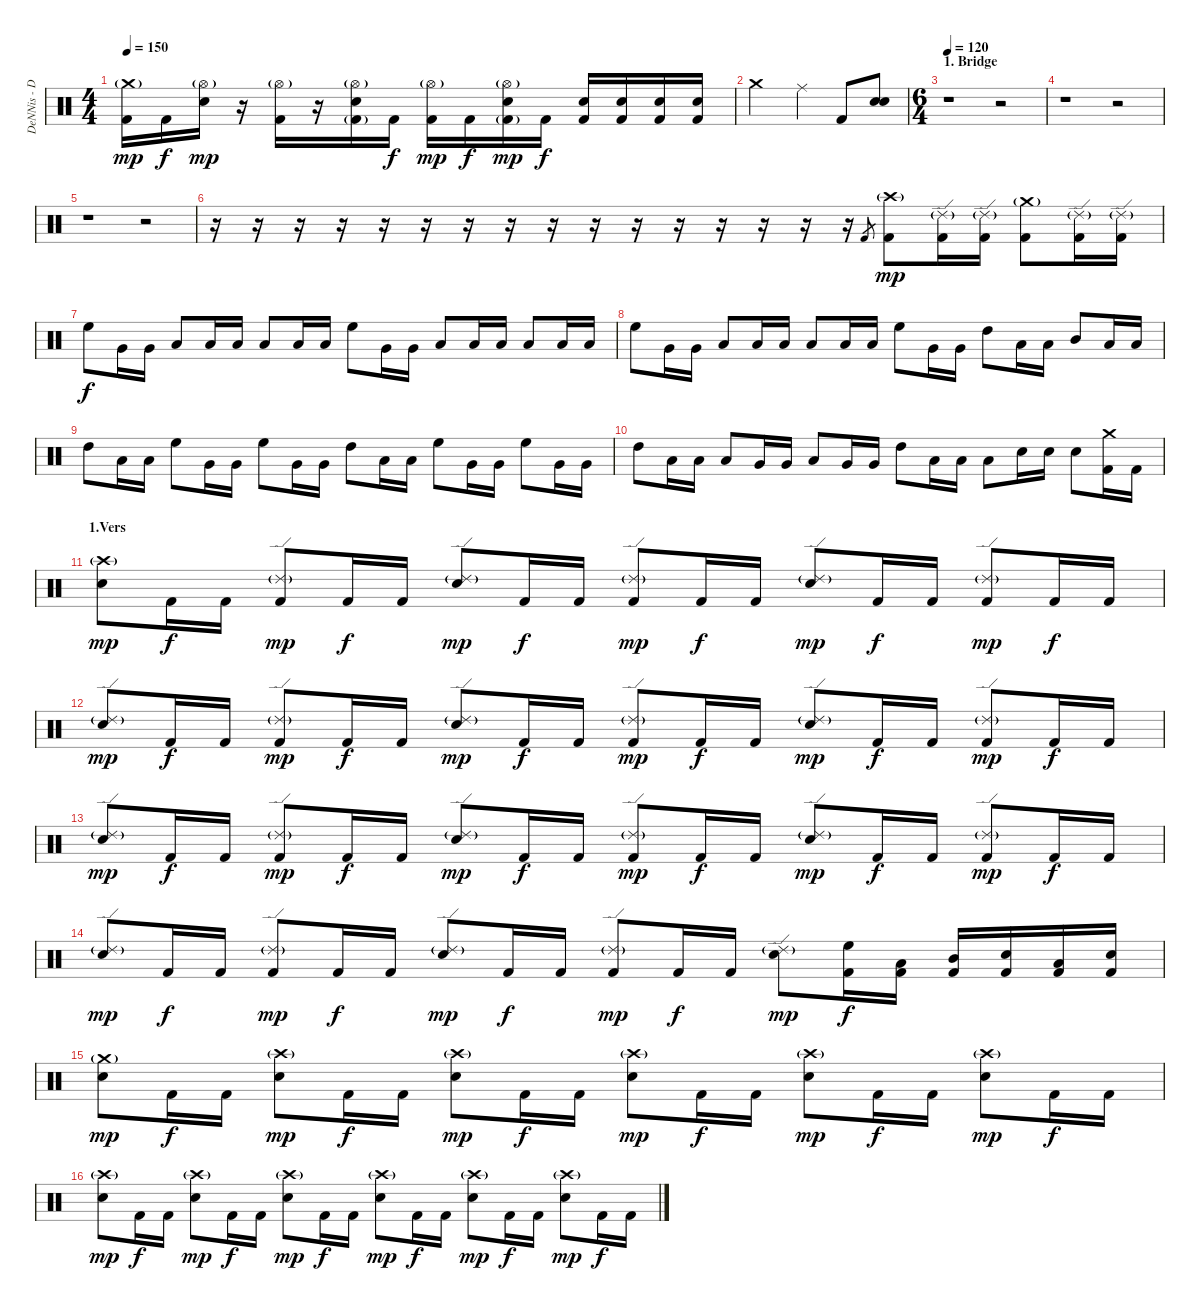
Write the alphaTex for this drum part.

\track ("DeNNis - Drums" "DeNNis - D") {instrument percussion}
\staff {score}
\articulation defaults
\ts (4 4)
\tempo 150
\clef neutral
\ks c
("Crash medium (hit)"{g} "Kick (hit) 2").16{dy mp} "Kick (hit) 2".16{dy f} ("Hi-Hat (open)"{g} "Electric Snare (hit)").16{dy mp} r.16 ("Hi-Hat (open)"{g} "Kick (hit) 2").16 r.16 ("Hi-Hat (open)"{g} "Electric Snare (hit)" "Kick (hit) 2"{g}).16 "Kick (hit) 2".16{dy f} ("Hi-Hat (open)"{g} "Kick (hit) 2").16{dy mp} "Kick (hit) 2".16{dy f} ("Hi-Hat (open)"{g} "Electric Snare (hit)" "Kick (hit) 2"{g}).16{dy mp} "Kick (hit) 2".16{dy f} ("Electric Snare (hit)" "Kick (hit) 2").16 ("Electric Snare (hit)" "Kick (hit) 2").16 ("Electric Snare (hit)" "Kick (hit) 2").16 ("Electric Snare (hit)" "Kick (hit) 2").16 |
"Crash medium (hit)".2 "Ride (middle)".4 "Kick (hit) 2".8 ("Electric Snare (hit)" "Electric Snare (hit)").8{bu 480} |
\ts (6 4)
\section ("" "1. Bridge")
\tempo 120
r.1 r.2 |
r.1 r.2 |
r.1 r.2 |
r.16 r.16 r.16 r.16 r.16 r.16 r.16 r.16 r.16 r.16 r.16 r.16 r.16 r.16 r.16 r.16 "Kick (hit) 2".8{gr} ("Crash high (hit)"{g} "Kick (hit) 2").8{dy mp} ("Ride (edge) 2"{g} "Kick (hit) 2").16 ("Ride (edge) 2"{g} "Kick (hit) 2").16 ("Crash medium (hit)"{g} "Kick (hit) 2").8 ("Ride (edge) 2"{g} "Kick (hit) 2").16 ("Ride (edge) 2"{g} "Kick (hit) 2").16 |
"High Floor Tom (hit)".8{dy f} "Very Low Tom (hit)".16 "Very Low Tom (hit)".16 "Low Tom (hit)".8 "Low Floor Tom (hit)".16 "Low Floor Tom (hit)".16 "Low Tom (hit)".8 "Low Floor Tom (hit)".16 "Low Floor Tom (hit)".16 "High Floor Tom (hit)".8 "Very Low Tom (hit)".16 "Very Low Tom (hit)".16 "Low Tom (hit)".8 "Low Floor Tom (hit)".16 "Low Floor Tom (hit)".16 "Low Tom (hit)".8 "Low Floor Tom (hit)".16 "Low Floor Tom (hit)".16 |
"High Floor Tom (hit)".8 "Very Low Tom (hit)".16 "Very Low Tom (hit)".16 "Low Tom (hit)".8 "Low Floor Tom (hit)".16 "Low Floor Tom (hit)".16 "Low Tom (hit)".8 "Low Floor Tom (hit)".16 "Low Floor Tom (hit)".16 "High Floor Tom (hit)".8 "Very Low Tom (hit)".16 "Very Low Tom (hit)".16 "High Tom (hit)".8 "Low Tom (hit)".16 "Low Tom (hit)".16 "Mid Tom (hit)".8 "Low Floor Tom (hit)".16 "Low Floor Tom (hit)".16 |
"High Tom (hit)".8 "Low Floor Tom (hit)".16 "Low Floor Tom (hit)".16 "High Floor Tom (hit)".8 "Very Low Tom (hit)".16 "Very Low Tom (hit)".16 "High Floor Tom (hit)".8 "Very Low Tom (hit)".16 "Very Low Tom (hit)".16 "High Tom (hit)".8 "Low Floor Tom (hit)".16 "Low Floor Tom (hit)".16 "High Floor Tom (hit)".8 "Very Low Tom (hit)".16 "Very Low Tom (hit)".16 "High Floor Tom (hit)".8 "Very Low Tom (hit)".16 "Very Low Tom (hit)".16 |
"High Tom (hit)".8 "Low Floor Tom (hit)".16 "Low Floor Tom (hit)".16 "Low Tom (hit)".8 "Very Low Tom (hit)".16 "Very Low Tom (hit)".16 "Low Tom (hit)".8 "Very Low Tom (hit)".16 "Very Low Tom (hit)".16 "High Tom (hit)".8 "Low Floor Tom (hit)".16 "Low Floor Tom (hit)".16 "Low Tom (hit)".8 "Electric Snare (hit)".16 "Electric Snare (hit)".16 "Electric Snare (hit)".8 ("Crash medium (hit)" "Kick (hit) 2").16 "Kick (hit) 2".16 |
\section ("" "1.Vers")
("Crash high (hit)"{g} "Electric Snare (hit)").8{dy mp} "Kick (hit) 2".16{dy f} "Kick (hit) 2".16 ("Ride (edge) 2"{g} "Kick (hit) 2").8{dy mp} "Kick (hit) 2".16{dy f} "Kick (hit) 2".16 ("Ride (edge) 2"{g} "Electric Snare (hit)").8{dy mp} "Kick (hit) 2".16{dy f} "Kick (hit) 2".16 ("Ride (edge) 2"{g} "Kick (hit) 2").8{dy mp} "Kick (hit) 2".16{dy f} "Kick (hit) 2".16 ("Ride (edge) 2"{g} "Electric Snare (hit)").8{dy mp} "Kick (hit) 2".16{dy f} "Kick (hit) 2".16 ("Ride (edge) 2"{g} "Kick (hit) 2").8{dy mp} "Kick (hit) 2".16{dy f} "Kick (hit) 2".16 |
("Ride (edge) 2"{g} "Electric Snare (hit)").8{dy mp} "Kick (hit) 2".16{dy f} "Kick (hit) 2".16 ("Ride (edge) 2"{g} "Kick (hit) 2").8{dy mp} "Kick (hit) 2".16{dy f} "Kick (hit) 2".16 ("Ride (edge) 2"{g} "Electric Snare (hit)").8{dy mp} "Kick (hit) 2".16{dy f} "Kick (hit) 2".16 ("Ride (edge) 2"{g} "Kick (hit) 2").8{dy mp} "Kick (hit) 2".16{dy f} "Kick (hit) 2".16 ("Ride (edge) 2"{g} "Electric Snare (hit)").8{dy mp} "Kick (hit) 2".16{dy f} "Kick (hit) 2".16 ("Ride (edge) 2"{g} "Kick (hit) 2").8{dy mp} "Kick (hit) 2".16{dy f} "Kick (hit) 2".16 |
("Ride (edge) 2"{g} "Electric Snare (hit)").8{dy mp} "Kick (hit) 2".16{dy f} "Kick (hit) 2".16 ("Ride (edge) 2"{g} "Kick (hit) 2").8{dy mp} "Kick (hit) 2".16{dy f} "Kick (hit) 2".16 ("Ride (edge) 2"{g} "Electric Snare (hit)").8{dy mp} "Kick (hit) 2".16{dy f} "Kick (hit) 2".16 ("Ride (edge) 2"{g} "Kick (hit) 2").8{dy mp} "Kick (hit) 2".16{dy f} "Kick (hit) 2".16 ("Ride (edge) 2"{g} "Electric Snare (hit)").8{dy mp} "Kick (hit) 2".16{dy f} "Kick (hit) 2".16 ("Ride (edge) 2"{g} "Kick (hit) 2").8{dy mp} "Kick (hit) 2".16{dy f} "Kick (hit) 2".16 |
("Ride (edge) 2"{g} "Electric Snare (hit)").8{dy mp} "Kick (hit) 2".16{dy f} "Kick (hit) 2".16 ("Ride (edge) 2"{g} "Kick (hit) 2").8{dy mp} "Kick (hit) 2".16{dy f} "Kick (hit) 2".16 ("Ride (edge) 2"{g} "Electric Snare (hit)").8{dy mp} "Kick (hit) 2".16{dy f} "Kick (hit) 2".16 ("Ride (edge) 2"{g} "Kick (hit) 2").8{dy mp} "Kick (hit) 2".16{dy f} "Kick (hit) 2".16 ("Ride (edge) 2"{g} "Electric Snare (hit)").8{dy mp} ("High Floor Tom (hit)" "Kick (hit) 2").16{dy f} ("Low Tom (hit)" "Kick (hit) 2").16 ("Mid Tom (hit)" "Kick (hit) 2").16 ("Electric Snare (hit)" "Kick (hit) 2").16 ("Low Floor Tom (hit)" "Kick (hit) 2").16 ("Electric Snare (hit)" "Kick (hit) 2").16 |
("Crash medium (hit)"{g} "Electric Snare (hit)").8{dy mp} "Kick (hit) 2".16{dy f} "Kick (hit) 2".16 ("Crash high (hit)"{g} "Electric Snare (hit)").8{dy mp} "Kick (hit) 2".16{dy f} "Kick (hit) 2".16 ("Crash high (hit)"{g} "Electric Snare (hit)").8{dy mp} "Kick (hit) 2".16{dy f} "Kick (hit) 2".16 ("Crash high (hit)"{g} "Electric Snare (hit)").8{dy mp} "Kick (hit) 2".16{dy f} "Kick (hit) 2".16 ("Crash high (hit)"{g} "Electric Snare (hit)").8{dy mp} "Kick (hit) 2".16{dy f} "Kick (hit) 2".16 ("Crash high (hit)"{g} "Electric Snare (hit)").8{dy mp} "Kick (hit) 2".16{dy f} "Kick (hit) 2".16 |
("Crash high (hit)"{g} "Electric Snare (hit)").8{dy mp} "Kick (hit) 2".16{dy f} "Kick (hit) 2".16 ("Crash high (hit)"{g} "Electric Snare (hit)").8{dy mp} "Kick (hit) 2".16{dy f} "Kick (hit) 2".16 ("Crash high (hit)"{g} "Electric Snare (hit)").8{dy mp} "Kick (hit) 2".16{dy f} "Kick (hit) 2".16 ("Crash high (hit)"{g} "Electric Snare (hit)").8{dy mp} "Kick (hit) 2".16{dy f} "Kick (hit) 2".16 ("Crash high (hit)"{g} "Electric Snare (hit)").8{dy mp} "Kick (hit) 2".16{dy f} "Kick (hit) 2".16 ("Crash high (hit)"{g} "Electric Snare (hit)").8{dy mp} "Kick (hit) 2".16{dy f} "Kick (hit) 2".16
